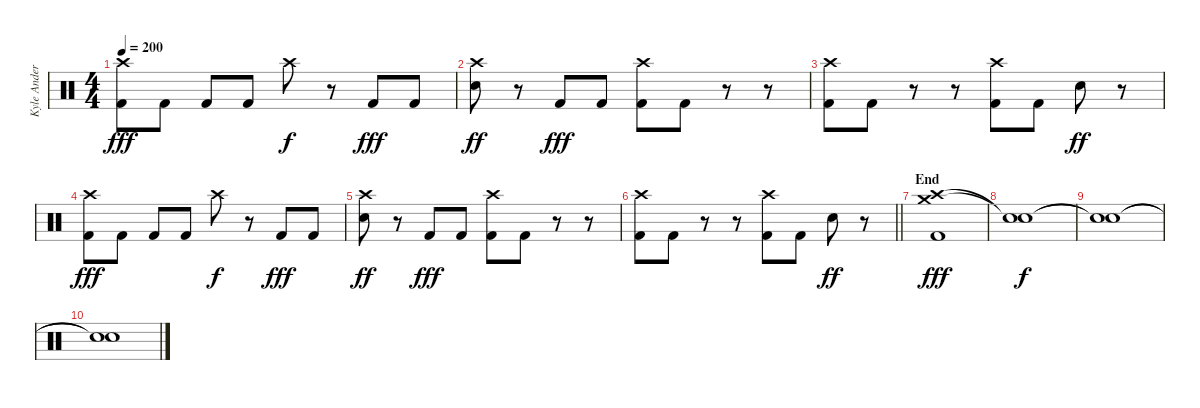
\track ("Kyle Anderson" "Kyle Ander") {instrument percussion}
\staff {score}
\articulation defaults
\ts (4 4)
\tempo 200
\clef neutral
\ks c
("Crash high (hit)" "Kick (hit) 2").8{dy fff} "Kick (hit) 2".8 "Kick (hit) 2".8 "Kick (hit) 2".8 "Crash high (hit)".8{dy f} r.8 "Kick (hit) 2".8{dy fff} "Kick (hit) 2".8 |
("Crash high (hit)" "Electric Snare (hit)").8{dy ff} r.8 "Kick (hit) 2".8{dy fff} "Kick (hit) 2".8 ("Crash high (hit)" "Kick (hit) 2").8 "Kick (hit) 2".8 r.8 r.8 |
("Crash high (hit)" "Kick (hit) 2").8 "Kick (hit) 2".8 r.8 r.8 ("Crash high (hit)" "Kick (hit) 2").8 "Kick (hit) 2".8 "Electric Snare (hit)".8{dy ff} r.8 |
("Crash high (hit)" "Kick (hit) 2").8{dy fff} "Kick (hit) 2".8 "Kick (hit) 2".8 "Kick (hit) 2".8 "Crash high (hit)".8{dy f} r.8 "Kick (hit) 2".8{dy fff} "Kick (hit) 2".8 |
("Crash high (hit)" "Electric Snare (hit)").8{dy ff} r.8 "Kick (hit) 2".8{dy fff} "Kick (hit) 2".8 ("Crash high (hit)" "Kick (hit) 2").8 "Kick (hit) 2".8 r.8 r.8 |
\barLineRight lightlight
("Crash high (hit)" "Kick (hit) 2").8 "Kick (hit) 2".8 r.8 r.8 ("Crash high (hit)" "Kick (hit) 2").8 "Kick (hit) 2".8 "Electric Snare (hit)".8{dy ff} r.8 |
\section ("" "End")
("Crash medium (hit)" "Crash high (hit)" "Kick (hit) 2").1{dy fff} |
("Snare (hit)"{t} "Snare (hit)"{t}).1{dy f} |
("Snare (hit)"{t} "Snare (hit)"{t}).1 |
("Snare (hit)"{t} "Snare (hit)"{t}).1
